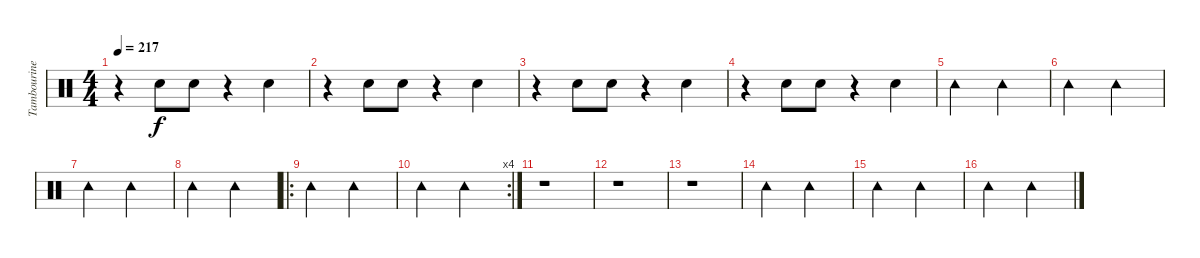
\track ("Tambourine" "Tambourine") {instrument percussion}
\staff {score}
\articulation defaults
\ts (4 4)
\tempo 217
\clef neutral
\ks c
r.4{dy f} "Hand Clap (hit)".8 "Hand Clap (hit)".8 r.4 "Hand Clap (hit)".4 |
r.4 "Hand Clap (hit)".8 "Hand Clap (hit)".8 r.4 "Hand Clap (hit)".4 |
r.4 "Hand Clap (hit)".8 "Hand Clap (hit)".8 r.4 "Hand Clap (hit)".4 |
r.4 "Hand Clap (hit)".8 "Hand Clap (hit)".8 r.4 "Hand Clap (hit)".4 |
"Tambourine (hit)".2 "Tambourine (hit)".2 |
"Tambourine (hit)".2 "Tambourine (hit)".2 |
"Tambourine (hit)".2 "Tambourine (hit)".2 |
"Tambourine (hit)".2 "Tambourine (hit)".2 |
\ro "Tambourine (hit)".2 "Tambourine (hit)".2
|
\rc 4 "Tambourine (hit)".2 "Tambourine (hit)".2
|
r.1 |
r.1 |
r.1 |
"Tambourine (hit)".2 "Tambourine (hit)".2 |
"Tambourine (hit)".2 "Tambourine (hit)".2 |
"Tambourine (hit)".2 "Tambourine (hit)".2
